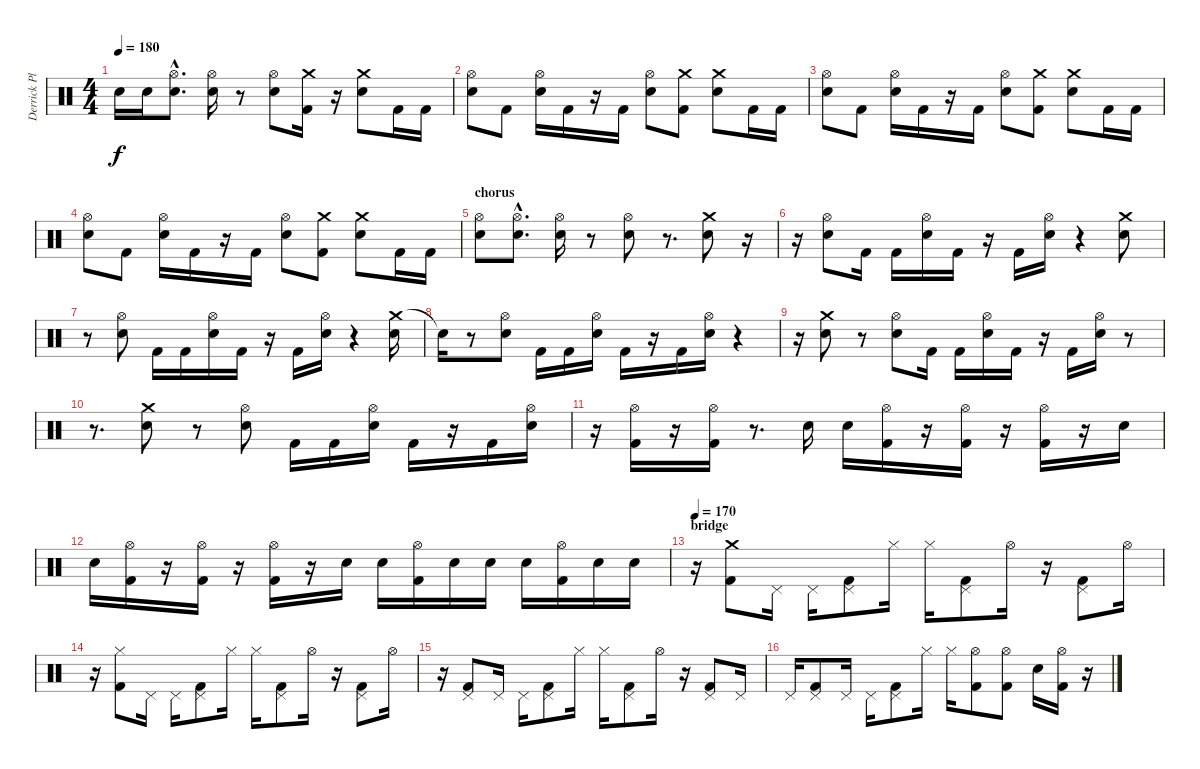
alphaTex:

\track ("Derrick Plourde" "Derrick Pl") {instrument percussion}
\staff {score}
\articulation defaults
\ts (4 4)
\tempo 180
\clef neutral
\ks c "Electric Snare (hit)".16{dy f} "Electric Snare (hit)".16
("Hi-Hat (open)" "Electric Snare (hit)"{hac}).8{d} ("Hi-Hat (open)" "Electric Snare (hit)").16 r.8 ("Hi-Hat (open)" "Electric Snare (hit)").8 ("Crash medium (hit)" "Kick (hit) 2").16 r.16 ("Crash medium (hit)" "Electric Snare (hit)").8 "Kick (hit) 2".16 "Kick (hit) 2".16 |
("Hi-Hat (open)" "Electric Snare (hit)").8 "Kick (hit) 2".8 ("Hi-Hat (open)" "Electric Snare (hit)").16 "Kick (hit) 2".16 r.16 "Kick (hit) 2".16 ("Hi-Hat (open)" "Electric Snare (hit)").8 ("Crash medium (hit)" "Kick (hit) 2").8 ("Crash medium (hit)" "Electric Snare (hit)").8 "Kick (hit) 2".16 "Kick (hit) 2".16 |
("Hi-Hat (open)" "Electric Snare (hit)").8 "Kick (hit) 2".8 ("Hi-Hat (open)" "Electric Snare (hit)").16 "Kick (hit) 2".16 r.16 "Kick (hit) 2".16 ("Hi-Hat (open)" "Electric Snare (hit)").8 ("Crash medium (hit)" "Kick (hit) 2").8 ("Crash medium (hit)" "Electric Snare (hit)").8 "Kick (hit) 2".16 "Kick (hit) 2".16 |
("Hi-Hat (open)" "Electric Snare (hit)").8 "Kick (hit) 2".8 ("Hi-Hat (open)" "Electric Snare (hit)").16 "Kick (hit) 2".16 r.16 "Kick (hit) 2".16 ("Hi-Hat (open)" "Electric Snare (hit)").8 ("Crash medium (hit)" "Kick (hit) 2").8 ("Crash medium (hit)" "Electric Snare (hit)").8 "Kick (hit) 2".16 "Kick (hit) 2".16 |
\section ("" "chorus")
("Hi-Hat (open)" "Electric Snare (hit)").8 ("Hi-Hat (open)" "Electric Snare (hit)"{hac}).8{d} ("Hi-Hat (open)" "Electric Snare (hit)").16 r.8 ("Hi-Hat (open)" "Electric Snare (hit)").8 r.8{d} ("Crash medium (hit)" "Electric Snare (hit)").8 r.16 |
r.16 ("Hi-Hat (open)" "Electric Snare (hit)").8 "Kick (hit) 2".16 "Kick (hit) 2".16 ("Hi-Hat (open)" "Electric Snare (hit)").16 "Kick (hit) 2".16 r.16 "Kick (hit) 2".16 ("Hi-Hat (open)" "Electric Snare (hit)").16 r.4 ("Crash medium (hit)" "Electric Snare (hit)").8 |
r.8 ("Hi-Hat (open)" "Electric Snare (hit)").8 "Kick (hit) 2".16 "Kick (hit) 2".16 ("Hi-Hat (open)" "Electric Snare (hit)").16 "Kick (hit) 2".16 r.16 "Kick (hit) 2".16 ("Hi-Hat (open)" "Electric Snare (hit)").16 r.4 ("Crash medium (hit)" "Electric Snare (hit)").16 |
"Snare (hit)"{t}.16 r.8 ("Hi-Hat (open)" "Electric Snare (hit)").8 "Kick (hit) 2".16 "Kick (hit) 2".16 ("Hi-Hat (open)" "Electric Snare (hit)").16 "Kick (hit) 2".16 r.16 "Kick (hit) 2".16 ("Hi-Hat (open)" "Electric Snare (hit)").16 r.4 |
r.16 ("Crash medium (hit)" "Electric Snare (hit)").8 r.8 ("Hi-Hat (open)" "Electric Snare (hit)").8 "Kick (hit) 2".16 "Kick (hit) 2".16 ("Hi-Hat (open)" "Electric Snare (hit)").16 "Kick (hit) 2".16 r.16 "Kick (hit) 2".16 ("Hi-Hat (open)" "Electric Snare (hit)").16 r.8 |
r.8{d} ("Crash medium (hit)" "Electric Snare (hit)").8 r.8 ("Hi-Hat (open)" "Electric Snare (hit)").8 "Kick (hit) 2".16 "Kick (hit) 2".16 ("Hi-Hat (open)" "Electric Snare (hit)").16 "Kick (hit) 2".16 r.16 "Kick (hit) 2".16 ("Hi-Hat (open)" "Electric Snare (hit)").16 |
r.16 ("Hi-Hat (open)" "Kick (hit) 2").16 r.16 ("Hi-Hat (open)" "Kick (hit) 2").16 r.8{d} "Electric Snare (hit)".16 "Electric Snare (hit)".16 ("Hi-Hat (open)" "Kick (hit) 2").16 r.16 ("Hi-Hat (open)" "Kick (hit) 2").16 r.16 ("Hi-Hat (open)" "Kick (hit) 2").16 r.16 "Electric Snare (hit)".16 |
"Electric Snare (hit)".16 ("Hi-Hat (open)" "Kick (hit) 2").16 r.16 ("Hi-Hat (open)" "Kick (hit) 2").16 r.16 ("Hi-Hat (open)" "Kick (hit) 2").16 r.16 "Electric Snare (hit)".16 "Electric Snare (hit)".16 ("Hi-Hat (open)" "Kick (hit) 2").16 "Electric Snare (hit)".16 "Electric Snare (hit)".16 "Electric Snare (hit)".16 ("Hi-Hat (open)" "Kick (hit) 2").16 "Electric Snare (hit)".16 "Electric Snare (hit)".16 |
\section ("" "bridge")
\tempo 170
r.16 ("Crash medium (hit)" "Kick (hit) 2").8 "Pedal Hi-Hat (hit)".16 "Pedal Hi-Hat (hit)".16 ("Pedal Hi-Hat (hit)" "Kick (hit) 2").8 "Hi-Hat (closed)".16 "Hi-Hat (closed)".16 ("Pedal Hi-Hat (hit)" "Kick (hit) 2").8 "Hi-Hat (open)".16 r.16 ("Pedal Hi-Hat (hit)" "Kick (hit) 2").8 "Hi-Hat (open)".16 |
r.16 ("Hi-Hat (closed)" "Kick (hit) 2").8 "Pedal Hi-Hat (hit)".16 "Pedal Hi-Hat (hit)".16 ("Pedal Hi-Hat (hit)" "Kick (hit) 2").8 "Hi-Hat (closed)".16 "Hi-Hat (closed)".16 ("Pedal Hi-Hat (hit)" "Kick (hit) 2").8 "Hi-Hat (open)".16 r.16 ("Pedal Hi-Hat (hit)" "Kick (hit) 2").8 "Hi-Hat (open)".16 |
r.16 ("Pedal Hi-Hat (hit)" "Kick (hit) 2").8 "Pedal Hi-Hat (hit)".16 "Pedal Hi-Hat (hit)".16 ("Pedal Hi-Hat (hit)" "Kick (hit) 2").8 "Hi-Hat (closed)".16 "Hi-Hat (closed)".16 ("Pedal Hi-Hat (hit)" "Kick (hit) 2").8 "Hi-Hat (open)".16 r.16 ("Pedal Hi-Hat (hit)" "Kick (hit) 2").8 "Pedal Hi-Hat (hit)".16 |
"Pedal Hi-Hat (hit)".16 ("Pedal Hi-Hat (hit)" "Kick (hit) 2").8 "Pedal Hi-Hat (hit)".16 "Pedal Hi-Hat (hit)".16 ("Pedal Hi-Hat (hit)" "Kick (hit) 2").8 "Hi-Hat (closed)".16 "Hi-Hat (closed)".16 ("Hi-Hat (open)" "Kick (hit) 2").8 ("Hi-Hat (open)" "Kick (hit) 2").8 "Electric Snare (hit)".16 ("Hi-Hat (open)" "Kick (hit) 2").16 r.16
